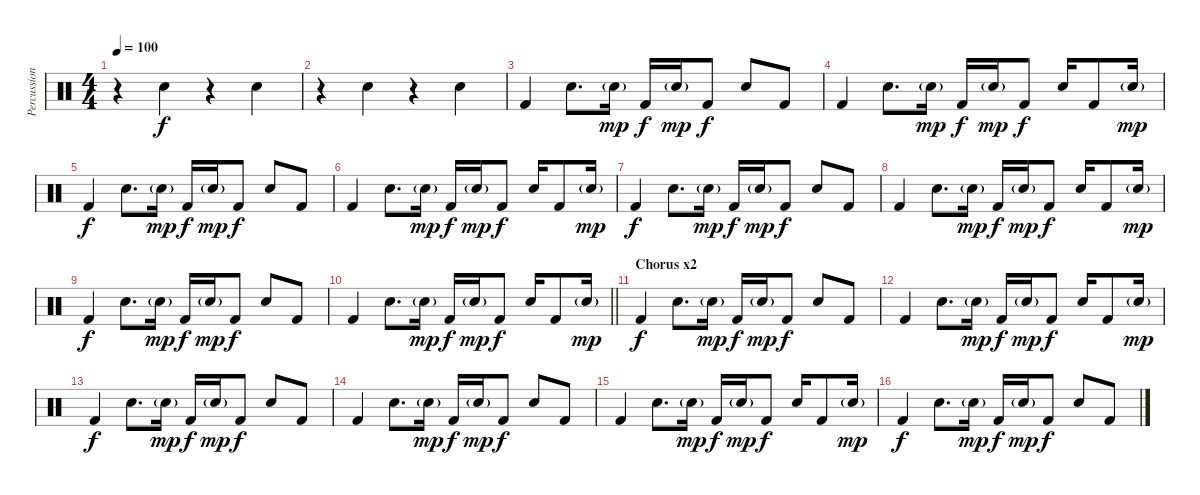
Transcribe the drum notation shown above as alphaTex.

\track ("Percussion" "Percussion") {instrument percussion}
\staff {score}
\articulation defaults
\ts (4 4)
\tempo 100
\clef neutral
\ks c
r.4{dy f} "Snare (hit) 2".4 r.4 "Snare (hit) 2".4 |
r.4 "Snare (hit) 2".4 r.4 "Snare (hit) 2".4 |
"Kick (hit) 2".4 "Snare (hit) 2".8{d} "Snare (hit) 2"{g}.16{dy mp} "Kick (hit) 2".16{dy f} "Snare (hit) 2"{g}.16{dy mp} "Kick (hit) 2".8{dy f} "Snare (hit) 2".8 "Kick (hit) 2".8 |
"Kick (hit) 2".4 "Snare (hit) 2".8{d} "Snare (hit) 2"{g}.16{dy mp} "Kick (hit) 2".16{dy f} "Snare (hit) 2"{g}.16{dy mp} "Kick (hit) 2".8{dy f} "Snare (hit) 2".16 "Kick (hit) 2".8 "Snare (hit) 2"{g}.16{dy mp} |
"Kick (hit) 2".4{dy f} "Snare (hit) 2".8{d} "Snare (hit) 2"{g}.16{dy mp} "Kick (hit) 2".16{dy f} "Snare (hit) 2"{g}.16{dy mp} "Kick (hit) 2".8{dy f} "Snare (hit) 2".8 "Kick (hit) 2".8 |
"Kick (hit) 2".4 "Snare (hit) 2".8{d} "Snare (hit) 2"{g}.16{dy mp} "Kick (hit) 2".16{dy f} "Snare (hit) 2"{g}.16{dy mp} "Kick (hit) 2".8{dy f} "Snare (hit) 2".16 "Kick (hit) 2".8 "Snare (hit) 2"{g}.16{dy mp} |
"Kick (hit) 2".4{dy f} "Snare (hit) 2".8{d} "Snare (hit) 2"{g}.16{dy mp} "Kick (hit) 2".16{dy f} "Snare (hit) 2"{g}.16{dy mp} "Kick (hit) 2".8{dy f} "Snare (hit) 2".8 "Kick (hit) 2".8 |
"Kick (hit) 2".4 "Snare (hit) 2".8{d} "Snare (hit) 2"{g}.16{dy mp} "Kick (hit) 2".16{dy f} "Snare (hit) 2"{g}.16{dy mp} "Kick (hit) 2".8{dy f} "Snare (hit) 2".16 "Kick (hit) 2".8 "Snare (hit) 2"{g}.16{dy mp} |
"Kick (hit) 2".4{dy f} "Snare (hit) 2".8{d} "Snare (hit) 2"{g}.16{dy mp} "Kick (hit) 2".16{dy f} "Snare (hit) 2"{g}.16{dy mp} "Kick (hit) 2".8{dy f} "Snare (hit) 2".8 "Kick (hit) 2".8 |
\barLineRight lightlight "Kick (hit) 2".4 "Snare (hit) 2".8{d} "Snare (hit) 2"{g}.16{dy mp} "Kick (hit) 2".16{dy f} "Snare (hit) 2"{g}.16{dy mp} "Kick (hit) 2".8{dy f} "Snare (hit) 2".16 "Kick (hit) 2".8 "Snare (hit) 2"{g}.16{dy mp}
|
\section ("" "Chorus x2")
"Kick (hit) 2".4{dy f} "Snare (hit) 2".8{d} "Snare (hit) 2"{g}.16{dy mp} "Kick (hit) 2".16{dy f} "Snare (hit) 2"{g}.16{dy mp} "Kick (hit) 2".8{dy f} "Snare (hit) 2".8 "Kick (hit) 2".8 |
"Kick (hit) 2".4 "Snare (hit) 2".8{d} "Snare (hit) 2"{g}.16{dy mp} "Kick (hit) 2".16{dy f} "Snare (hit) 2"{g}.16{dy mp} "Kick (hit) 2".8{dy f} "Snare (hit) 2".16 "Kick (hit) 2".8 "Snare (hit) 2"{g}.16{dy mp} |
"Kick (hit) 2".4{dy f} "Snare (hit) 2".8{d} "Snare (hit) 2"{g}.16{dy mp} "Kick (hit) 2".16{dy f} "Snare (hit) 2"{g}.16{dy mp} "Kick (hit) 2".8{dy f} "Snare (hit) 2".8 "Kick (hit) 2".8 |
"Kick (hit) 2".4 "Snare (hit) 2".8{d} "Snare (hit) 2"{g}.16{dy mp} "Kick (hit) 2".16{dy f} "Snare (hit) 2"{g}.16{dy mp} "Kick (hit) 2".8{dy f} "Snare (hit) 2".8 "Kick (hit) 2".8 |
"Kick (hit) 2".4 "Snare (hit) 2".8{d} "Snare (hit) 2"{g}.16{dy mp} "Kick (hit) 2".16{dy f} "Snare (hit) 2"{g}.16{dy mp} "Kick (hit) 2".8{dy f} "Snare (hit) 2".16 "Kick (hit) 2".8 "Snare (hit) 2"{g}.16{dy mp} |
"Kick (hit) 2".4{dy f} "Snare (hit) 2".8{d} "Snare (hit) 2"{g}.16{dy mp} "Kick (hit) 2".16{dy f} "Snare (hit) 2"{g}.16{dy mp} "Kick (hit) 2".8{dy f} "Snare (hit) 2".8 "Kick (hit) 2".8
